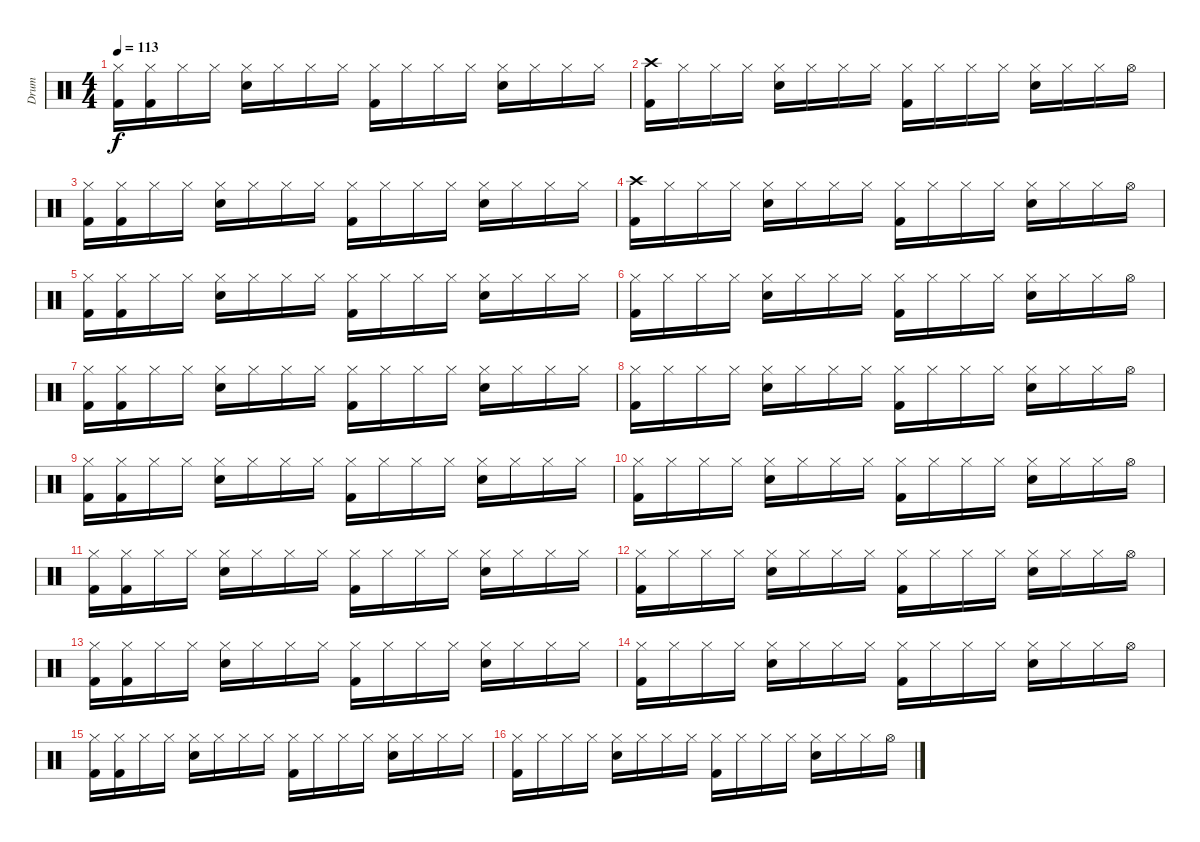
\track ("Drum" "Drum") {instrument percussion}
\staff {score}
\articulation defaults
\ts (4 4)
\tempo 113
\clef neutral
\ks c
("Hi-Hat (closed)" "Kick (hit) 2").16{dy f} ("Hi-Hat (closed)" "Kick (hit) 2").16 "Hi-Hat (closed)".16 "Hi-Hat (closed)".16 ("Hi-Hat (closed)" "Snare (hit) 2").16 "Hi-Hat (closed)".16 "Hi-Hat (closed)".16 "Hi-Hat (closed)".16 ("Hi-Hat (closed)" "Kick (hit) 2").16 "Hi-Hat (closed)".16 "Hi-Hat (closed)".16 "Hi-Hat (closed)".16 ("Hi-Hat (closed)" "Snare (hit) 2").16 "Hi-Hat (closed)".16 "Hi-Hat (closed)".16 "Hi-Hat (closed)".16 |
("Crash high (hit)" "Kick (hit) 2").16 "Hi-Hat (closed)".16 "Hi-Hat (closed)".16 "Hi-Hat (closed)".16 ("Hi-Hat (closed)" "Snare (hit) 2").16 "Hi-Hat (closed)".16 "Hi-Hat (closed)".16 "Hi-Hat (closed)".16 ("Hi-Hat (closed)" "Kick (hit) 2").16 "Hi-Hat (closed)".16 "Hi-Hat (closed)".16 "Hi-Hat (closed)".16 ("Hi-Hat (closed)" "Snare (hit) 2").16 "Hi-Hat (closed)".16 "Hi-Hat (closed)".16 "Hi-Hat (open)".16 |
("Hi-Hat (closed)" "Kick (hit) 2").16 ("Hi-Hat (closed)" "Kick (hit) 2").16 "Hi-Hat (closed)".16 "Hi-Hat (closed)".16 ("Hi-Hat (closed)" "Snare (hit) 2").16 "Hi-Hat (closed)".16 "Hi-Hat (closed)".16 "Hi-Hat (closed)".16 ("Hi-Hat (closed)" "Kick (hit) 2").16 "Hi-Hat (closed)".16 "Hi-Hat (closed)".16 "Hi-Hat (closed)".16 ("Hi-Hat (closed)" "Snare (hit) 2").16 "Hi-Hat (closed)".16 "Hi-Hat (closed)".16 "Hi-Hat (closed)".16 |
("Crash high (hit)" "Kick (hit) 2").16 "Hi-Hat (closed)".16 "Hi-Hat (closed)".16 "Hi-Hat (closed)".16 ("Hi-Hat (closed)" "Snare (hit) 2").16 "Hi-Hat (closed)".16 "Hi-Hat (closed)".16 "Hi-Hat (closed)".16 ("Hi-Hat (closed)" "Kick (hit) 2").16 "Hi-Hat (closed)".16 "Hi-Hat (closed)".16 "Hi-Hat (closed)".16 ("Hi-Hat (closed)" "Snare (hit) 2").16 "Hi-Hat (closed)".16 "Hi-Hat (closed)".16 "Hi-Hat (open)".16 |
("Hi-Hat (closed)" "Kick (hit) 2").16 ("Hi-Hat (closed)" "Kick (hit) 2").16 "Hi-Hat (closed)".16 "Hi-Hat (closed)".16 ("Hi-Hat (closed)" "Snare (hit) 2").16 "Hi-Hat (closed)".16 "Hi-Hat (closed)".16 "Hi-Hat (closed)".16 ("Hi-Hat (closed)" "Kick (hit) 2").16 "Hi-Hat (closed)".16 "Hi-Hat (closed)".16 "Hi-Hat (closed)".16 ("Hi-Hat (closed)" "Snare (hit) 2").16 "Hi-Hat (closed)".16 "Hi-Hat (closed)".16 "Hi-Hat (closed)".16 |
("Hi-Hat (closed)" "Kick (hit) 2").16 "Hi-Hat (closed)".16 "Hi-Hat (closed)".16 "Hi-Hat (closed)".16 ("Hi-Hat (closed)" "Snare (hit) 2").16 "Hi-Hat (closed)".16 "Hi-Hat (closed)".16 "Hi-Hat (closed)".16 ("Hi-Hat (closed)" "Kick (hit) 2").16 "Hi-Hat (closed)".16 "Hi-Hat (closed)".16 "Hi-Hat (closed)".16 ("Hi-Hat (closed)" "Snare (hit) 2").16 "Hi-Hat (closed)".16 "Hi-Hat (closed)".16 "Hi-Hat (open)".16 |
("Hi-Hat (closed)" "Kick (hit) 2").16 ("Hi-Hat (closed)" "Kick (hit) 2").16 "Hi-Hat (closed)".16 "Hi-Hat (closed)".16 ("Hi-Hat (closed)" "Snare (hit) 2").16 "Hi-Hat (closed)".16 "Hi-Hat (closed)".16 "Hi-Hat (closed)".16 ("Hi-Hat (closed)" "Kick (hit) 2").16 "Hi-Hat (closed)".16 "Hi-Hat (closed)".16 "Hi-Hat (closed)".16 ("Hi-Hat (closed)" "Snare (hit) 2").16 "Hi-Hat (closed)".16 "Hi-Hat (closed)".16 "Hi-Hat (closed)".16 |
("Hi-Hat (closed)" "Kick (hit) 2").16 "Hi-Hat (closed)".16 "Hi-Hat (closed)".16 "Hi-Hat (closed)".16 ("Hi-Hat (closed)" "Snare (hit) 2").16 "Hi-Hat (closed)".16 "Hi-Hat (closed)".16 "Hi-Hat (closed)".16 ("Hi-Hat (closed)" "Kick (hit) 2").16 "Hi-Hat (closed)".16 "Hi-Hat (closed)".16 "Hi-Hat (closed)".16 ("Hi-Hat (closed)" "Snare (hit) 2").16 "Hi-Hat (closed)".16 "Hi-Hat (closed)".16 "Hi-Hat (open)".16 |
("Hi-Hat (closed)" "Kick (hit) 2").16 ("Hi-Hat (closed)" "Kick (hit) 2").16 "Hi-Hat (closed)".16 "Hi-Hat (closed)".16 ("Hi-Hat (closed)" "Snare (hit) 2").16 "Hi-Hat (closed)".16 "Hi-Hat (closed)".16 "Hi-Hat (closed)".16 ("Hi-Hat (closed)" "Kick (hit) 2").16 "Hi-Hat (closed)".16 "Hi-Hat (closed)".16 "Hi-Hat (closed)".16 ("Hi-Hat (closed)" "Snare (hit) 2").16 "Hi-Hat (closed)".16 "Hi-Hat (closed)".16 "Hi-Hat (closed)".16 |
("Hi-Hat (closed)" "Kick (hit) 2").16 "Hi-Hat (closed)".16 "Hi-Hat (closed)".16 "Hi-Hat (closed)".16 ("Hi-Hat (closed)" "Snare (hit) 2").16 "Hi-Hat (closed)".16 "Hi-Hat (closed)".16 "Hi-Hat (closed)".16 ("Hi-Hat (closed)" "Kick (hit) 2").16 "Hi-Hat (closed)".16 "Hi-Hat (closed)".16 "Hi-Hat (closed)".16 ("Hi-Hat (closed)" "Snare (hit) 2").16 "Hi-Hat (closed)".16 "Hi-Hat (closed)".16 "Hi-Hat (open)".16 |
("Hi-Hat (closed)" "Kick (hit) 2").16 ("Hi-Hat (closed)" "Kick (hit) 2").16 "Hi-Hat (closed)".16 "Hi-Hat (closed)".16 ("Hi-Hat (closed)" "Snare (hit) 2").16 "Hi-Hat (closed)".16 "Hi-Hat (closed)".16 "Hi-Hat (closed)".16 ("Hi-Hat (closed)" "Kick (hit) 2").16 "Hi-Hat (closed)".16 "Hi-Hat (closed)".16 "Hi-Hat (closed)".16 ("Hi-Hat (closed)" "Snare (hit) 2").16 "Hi-Hat (closed)".16 "Hi-Hat (closed)".16 "Hi-Hat (closed)".16 |
("Hi-Hat (closed)" "Kick (hit) 2").16 "Hi-Hat (closed)".16 "Hi-Hat (closed)".16 "Hi-Hat (closed)".16 ("Hi-Hat (closed)" "Snare (hit) 2").16 "Hi-Hat (closed)".16 "Hi-Hat (closed)".16 "Hi-Hat (closed)".16 ("Hi-Hat (closed)" "Kick (hit) 2").16 "Hi-Hat (closed)".16 "Hi-Hat (closed)".16 "Hi-Hat (closed)".16 ("Hi-Hat (closed)" "Snare (hit) 2").16 "Hi-Hat (closed)".16 "Hi-Hat (closed)".16 "Hi-Hat (open)".16 |
("Hi-Hat (closed)" "Kick (hit) 2").16 ("Hi-Hat (closed)" "Kick (hit) 2").16 "Hi-Hat (closed)".16 "Hi-Hat (closed)".16 ("Hi-Hat (closed)" "Snare (hit) 2").16 "Hi-Hat (closed)".16 "Hi-Hat (closed)".16 "Hi-Hat (closed)".16 ("Hi-Hat (closed)" "Kick (hit) 2").16 "Hi-Hat (closed)".16 "Hi-Hat (closed)".16 "Hi-Hat (closed)".16 ("Hi-Hat (closed)" "Snare (hit) 2").16 "Hi-Hat (closed)".16 "Hi-Hat (closed)".16 "Hi-Hat (closed)".16 |
("Hi-Hat (closed)" "Kick (hit) 2").16 "Hi-Hat (closed)".16 "Hi-Hat (closed)".16 "Hi-Hat (closed)".16 ("Hi-Hat (closed)" "Snare (hit) 2").16 "Hi-Hat (closed)".16 "Hi-Hat (closed)".16 "Hi-Hat (closed)".16 ("Hi-Hat (closed)" "Kick (hit) 2").16 "Hi-Hat (closed)".16 "Hi-Hat (closed)".16 "Hi-Hat (closed)".16 ("Hi-Hat (closed)" "Snare (hit) 2").16 "Hi-Hat (closed)".16 "Hi-Hat (closed)".16 "Hi-Hat (open)".16 |
("Hi-Hat (closed)" "Kick (hit) 2").16 ("Hi-Hat (closed)" "Kick (hit) 2").16 "Hi-Hat (closed)".16 "Hi-Hat (closed)".16 ("Hi-Hat (closed)" "Snare (hit) 2").16 "Hi-Hat (closed)".16 "Hi-Hat (closed)".16 "Hi-Hat (closed)".16 ("Hi-Hat (closed)" "Kick (hit) 2").16 "Hi-Hat (closed)".16 "Hi-Hat (closed)".16 "Hi-Hat (closed)".16 ("Hi-Hat (closed)" "Snare (hit) 2").16 "Hi-Hat (closed)".16 "Hi-Hat (closed)".16 "Hi-Hat (closed)".16 |
("Hi-Hat (closed)" "Kick (hit) 2").16 "Hi-Hat (closed)".16 "Hi-Hat (closed)".16 "Hi-Hat (closed)".16 ("Hi-Hat (closed)" "Snare (hit) 2").16 "Hi-Hat (closed)".16 "Hi-Hat (closed)".16 "Hi-Hat (closed)".16 ("Hi-Hat (closed)" "Kick (hit) 2").16 "Hi-Hat (closed)".16 "Hi-Hat (closed)".16 "Hi-Hat (closed)".16 ("Hi-Hat (closed)" "Snare (hit) 2").16 "Hi-Hat (closed)".16 "Hi-Hat (closed)".16 "Hi-Hat (open)".16
